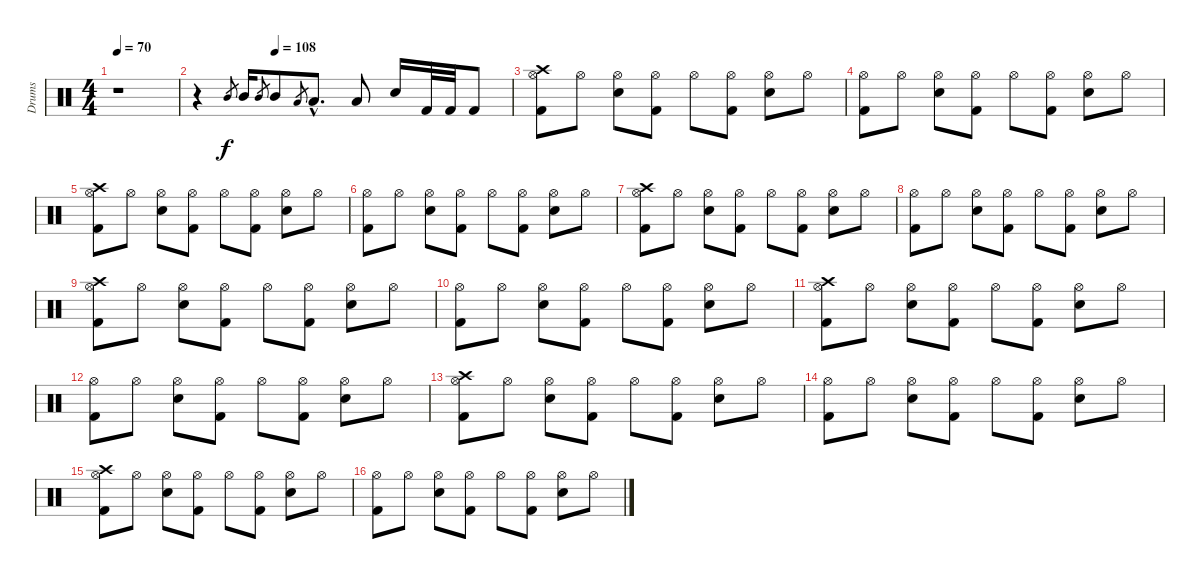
\track ("Drums" "Drums") {instrument percussion}
\staff {score}
\articulation defaults
\ts (4 4)
\tempo 70
\clef neutral
\ks c
r.1{dy f} |
\tempo (108 0.25)
r.4 "Mid Tom (hit)".8{gr} "Mid Tom (hit)".16 "Mid Tom (hit)".8{gr} "Mid Tom (hit)".8 "Low Tom (hit)".8{gr} "Low Tom (hit)"{hac}.8{d} "Low Tom (hit)".8 "Snare (hit) 2".16 "Kick (hit) 2".32 "Kick (hit) 2".32 "Kick (hit) 2".8 |
("Kick (hit) 2" "Hi-Hat (open)" "Crash high (hit)").8 "Hi-Hat (open)".8 ("Snare (hit) 2" "Hi-Hat (open)").8 ("Kick (hit) 2" "Hi-Hat (open)").8 "Hi-Hat (open)".8 ("Kick (hit) 2" "Hi-Hat (open)").8 ("Snare (hit) 2" "Hi-Hat (open)").8 "Hi-Hat (open)".8 |
("Kick (hit) 2" "Hi-Hat (open)").8 "Hi-Hat (open)".8 ("Snare (hit) 2" "Hi-Hat (open)").8 ("Kick (hit) 2" "Hi-Hat (open)").8 "Hi-Hat (open)".8 ("Kick (hit) 2" "Hi-Hat (open)").8 ("Snare (hit) 2" "Hi-Hat (open)").8 "Hi-Hat (open)".8 |
("Kick (hit) 2" "Hi-Hat (open)" "Crash high (hit)").8 "Hi-Hat (open)".8 ("Snare (hit) 2" "Hi-Hat (open)").8 ("Kick (hit) 2" "Hi-Hat (open)").8 "Hi-Hat (open)".8 ("Kick (hit) 2" "Hi-Hat (open)").8 ("Snare (hit) 2" "Hi-Hat (open)").8 "Hi-Hat (open)".8 |
("Kick (hit) 2" "Hi-Hat (open)").8 "Hi-Hat (open)".8 ("Snare (hit) 2" "Hi-Hat (open)").8 ("Kick (hit) 2" "Hi-Hat (open)").8 "Hi-Hat (open)".8 ("Kick (hit) 2" "Hi-Hat (open)").8 ("Snare (hit) 2" "Hi-Hat (open)").8 "Hi-Hat (open)".8 |
("Kick (hit) 2" "Hi-Hat (open)" "Crash high (hit)").8 "Hi-Hat (open)".8 ("Snare (hit) 2" "Hi-Hat (open)").8 ("Kick (hit) 2" "Hi-Hat (open)").8 "Hi-Hat (open)".8 ("Kick (hit) 2" "Hi-Hat (open)").8 ("Snare (hit) 2" "Hi-Hat (open)").8 "Hi-Hat (open)".8 |
("Kick (hit) 2" "Hi-Hat (open)").8 "Hi-Hat (open)".8 ("Snare (hit) 2" "Hi-Hat (open)").8 ("Kick (hit) 2" "Hi-Hat (open)").8 "Hi-Hat (open)".8 ("Kick (hit) 2" "Hi-Hat (open)").8 ("Snare (hit) 2" "Hi-Hat (open)").8 "Hi-Hat (open)".8 |
("Kick (hit) 2" "Hi-Hat (open)" "Crash high (hit)").8 "Hi-Hat (open)".8 ("Snare (hit) 2" "Hi-Hat (open)").8 ("Kick (hit) 2" "Hi-Hat (open)").8 "Hi-Hat (open)".8 ("Kick (hit) 2" "Hi-Hat (open)").8 ("Snare (hit) 2" "Hi-Hat (open)").8 "Hi-Hat (open)".8 |
("Kick (hit) 2" "Hi-Hat (open)").8 "Hi-Hat (open)".8 ("Snare (hit) 2" "Hi-Hat (open)").8 ("Kick (hit) 2" "Hi-Hat (open)").8 "Hi-Hat (open)".8 ("Kick (hit) 2" "Hi-Hat (open)").8 ("Snare (hit) 2" "Hi-Hat (open)").8 "Hi-Hat (open)".8 |
("Kick (hit) 2" "Hi-Hat (open)" "Crash high (hit)").8 "Hi-Hat (open)".8 ("Snare (hit) 2" "Hi-Hat (open)").8 ("Kick (hit) 2" "Hi-Hat (open)").8 "Hi-Hat (open)".8 ("Kick (hit) 2" "Hi-Hat (open)").8 ("Snare (hit) 2" "Hi-Hat (open)").8 "Hi-Hat (open)".8 |
("Kick (hit) 2" "Hi-Hat (open)").8 "Hi-Hat (open)".8 ("Snare (hit) 2" "Hi-Hat (open)").8 ("Kick (hit) 2" "Hi-Hat (open)").8 "Hi-Hat (open)".8 ("Kick (hit) 2" "Hi-Hat (open)").8 ("Snare (hit) 2" "Hi-Hat (open)").8 "Hi-Hat (open)".8 |
("Kick (hit) 2" "Hi-Hat (open)" "Crash high (hit)").8 "Hi-Hat (open)".8 ("Snare (hit) 2" "Hi-Hat (open)").8 ("Kick (hit) 2" "Hi-Hat (open)").8 "Hi-Hat (open)".8 ("Kick (hit) 2" "Hi-Hat (open)").8 ("Snare (hit) 2" "Hi-Hat (open)").8 "Hi-Hat (open)".8 |
("Kick (hit) 2" "Hi-Hat (open)").8 "Hi-Hat (open)".8 ("Snare (hit) 2" "Hi-Hat (open)").8 ("Kick (hit) 2" "Hi-Hat (open)").8 "Hi-Hat (open)".8 ("Kick (hit) 2" "Hi-Hat (open)").8 ("Snare (hit) 2" "Hi-Hat (open)").8 "Hi-Hat (open)".8 |
("Kick (hit) 2" "Hi-Hat (open)" "Crash high (hit)").8{volume 10} "Hi-Hat (open)".8 ("Snare (hit) 2" "Hi-Hat (open)").8 ("Kick (hit) 2" "Hi-Hat (open)").8 "Hi-Hat (open)".8 ("Kick (hit) 2" "Hi-Hat (open)").8 ("Snare (hit) 2" "Hi-Hat (open)").8 "Hi-Hat (open)".8 |
("Kick (hit) 2" "Hi-Hat (open)").8 "Hi-Hat (open)".8 ("Snare (hit) 2" "Hi-Hat (open)").8 ("Kick (hit) 2" "Hi-Hat (open)").8 "Hi-Hat (open)".8 ("Kick (hit) 2" "Hi-Hat (open)").8 ("Snare (hit) 2" "Hi-Hat (open)").8 "Hi-Hat (open)".8
